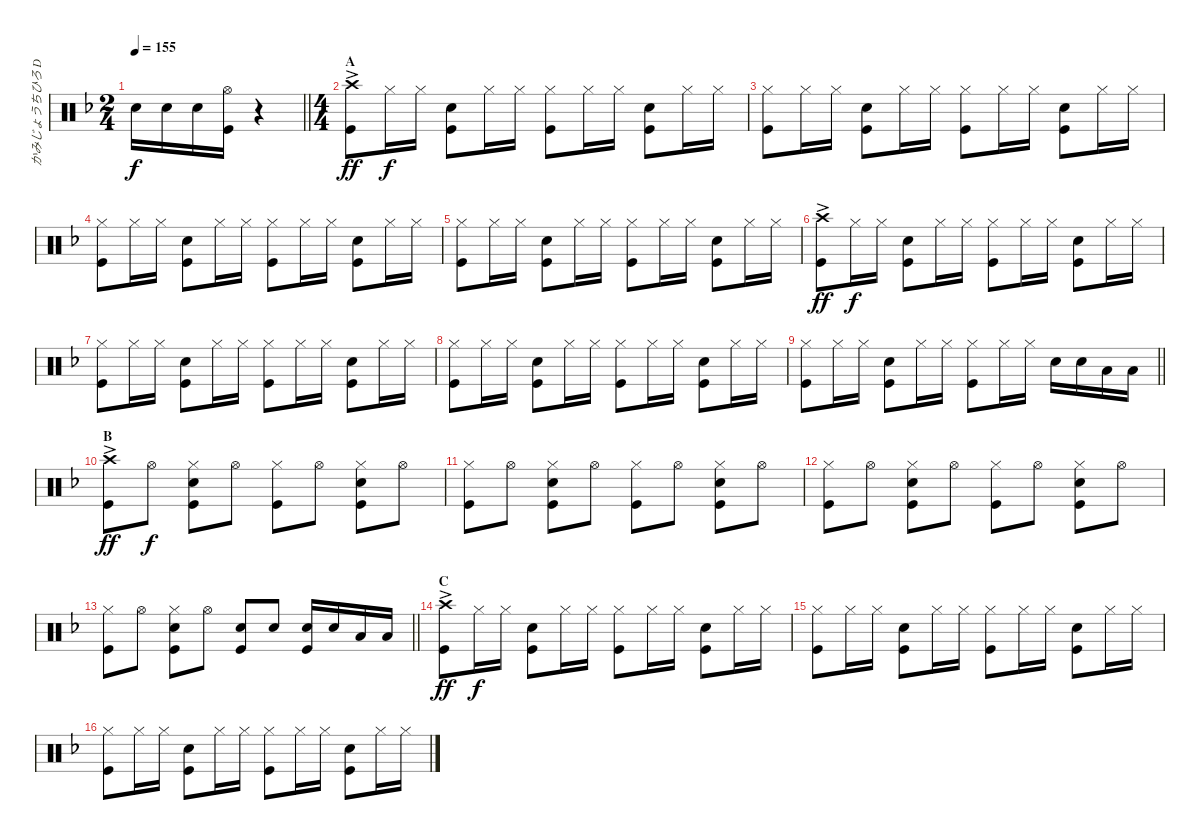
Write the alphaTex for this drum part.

\track ("かみじょうちひろ DRUMS" "かみじょうちひろ D") {instrument percussion}
\staff {score}
\articulation defaults
\ts (2 4)
\tempo 155
\clef neutral
\barLineRight lightlight
\ks f "Snare (hit) 2".16{dy f} "Snare (hit) 2".16 "Snare (hit) 2".16
("Hi-Hat (open)" "Kick (hit)").16 r.4 |
\ts (4 4)
\section ("" "A")
("Crash high (hit)"{ac} "Kick (hit)").8{dy ff} "Hi-Hat (closed)".16{dy f} "Hi-Hat (closed)".16 ("Snare (hit) 2" "Kick (hit)").8 "Hi-Hat (closed)".16 "Hi-Hat (closed)".16 ("Hi-Hat (closed)" "Kick (hit)").8 "Hi-Hat (closed)".16 "Hi-Hat (closed)".16 ("Snare (hit) 2" "Kick (hit)").8 "Hi-Hat (closed)".16 "Hi-Hat (closed)".16 |
("Hi-Hat (closed)" "Kick (hit)").8 "Hi-Hat (closed)".16 "Hi-Hat (closed)".16 ("Snare (hit) 2" "Kick (hit)").8 "Hi-Hat (closed)".16 "Hi-Hat (closed)".16 ("Hi-Hat (closed)" "Kick (hit)").8 "Hi-Hat (closed)".16 "Hi-Hat (closed)".16 ("Snare (hit) 2" "Kick (hit)").8 "Hi-Hat (closed)".16 "Hi-Hat (closed)".16 |
("Hi-Hat (closed)" "Kick (hit)").8 "Hi-Hat (closed)".16 "Hi-Hat (closed)".16 ("Snare (hit) 2" "Kick (hit)").8 "Hi-Hat (closed)".16 "Hi-Hat (closed)".16 ("Hi-Hat (closed)" "Kick (hit)").8 "Hi-Hat (closed)".16 "Hi-Hat (closed)".16 ("Snare (hit) 2" "Kick (hit)").8 "Hi-Hat (closed)".16 "Hi-Hat (closed)".16 |
("Hi-Hat (closed)" "Kick (hit)").8 "Hi-Hat (closed)".16 "Hi-Hat (closed)".16 ("Snare (hit) 2" "Kick (hit)").8 "Hi-Hat (closed)".16 "Hi-Hat (closed)".16 ("Hi-Hat (closed)" "Kick (hit)").8 "Hi-Hat (closed)".16 "Hi-Hat (closed)".16 ("Snare (hit) 2" "Kick (hit)").8 "Hi-Hat (closed)".16 "Hi-Hat (closed)".16 |
("Crash high (hit)"{ac} "Kick (hit)").8{dy ff} "Hi-Hat (closed)".16{dy f} "Hi-Hat (closed)".16 ("Snare (hit) 2" "Kick (hit)").8 "Hi-Hat (closed)".16 "Hi-Hat (closed)".16 ("Hi-Hat (closed)" "Kick (hit)").8 "Hi-Hat (closed)".16 "Hi-Hat (closed)".16 ("Snare (hit) 2" "Kick (hit)").8 "Hi-Hat (closed)".16 "Hi-Hat (closed)".16 |
("Hi-Hat (closed)" "Kick (hit)").8 "Hi-Hat (closed)".16 "Hi-Hat (closed)".16 ("Snare (hit) 2" "Kick (hit)").8 "Hi-Hat (closed)".16 "Hi-Hat (closed)".16 ("Hi-Hat (closed)" "Kick (hit)").8 "Hi-Hat (closed)".16 "Hi-Hat (closed)".16 ("Snare (hit) 2" "Kick (hit)").8 "Hi-Hat (closed)".16 "Hi-Hat (closed)".16 |
("Hi-Hat (closed)" "Kick (hit)").8 "Hi-Hat (closed)".16 "Hi-Hat (closed)".16 ("Snare (hit) 2" "Kick (hit)").8 "Hi-Hat (closed)".16 "Hi-Hat (closed)".16 ("Hi-Hat (closed)" "Kick (hit)").8 "Hi-Hat (closed)".16 "Hi-Hat (closed)".16 ("Snare (hit) 2" "Kick (hit)").8 "Hi-Hat (closed)".16 "Hi-Hat (closed)".16 |
\barLineRight lightlight
("Hi-Hat (closed)" "Kick (hit)").8 "Hi-Hat (closed)".16 "Hi-Hat (closed)".16 ("Snare (hit) 2" "Kick (hit)").8 "Hi-Hat (closed)".16 "Hi-Hat (closed)".16 ("Hi-Hat (closed)" "Kick (hit)").8 "Hi-Hat (closed)".16 "Hi-Hat (closed)".16 "Snare (hit) 2".16 "Snare (hit) 2".16 "Low Tom (hit)".16 "Low Tom (hit)".16 |
\section ("" "B")
("Crash high (hit)"{ac} "Kick (hit)").8{dy ff} "Hi-Hat (open)".8{dy f} ("Hi-Hat (closed)" "Snare (hit) 2" "Kick (hit)").8 "Hi-Hat (open)".8 ("Hi-Hat (closed)" "Kick (hit)").8 "Hi-Hat (open)".8 ("Hi-Hat (closed)" "Snare (hit) 2" "Kick (hit)").8 "Hi-Hat (open)".8 |
("Hi-Hat (closed)" "Kick (hit)").8 "Hi-Hat (open)".8 ("Hi-Hat (closed)" "Snare (hit) 2" "Kick (hit)").8 "Hi-Hat (open)".8 ("Hi-Hat (closed)" "Kick (hit)").8 "Hi-Hat (open)".8 ("Hi-Hat (closed)" "Snare (hit) 2" "Kick (hit)").8 "Hi-Hat (open)".8 |
("Hi-Hat (closed)" "Kick (hit)").8 "Hi-Hat (open)".8 ("Hi-Hat (closed)" "Snare (hit) 2" "Kick (hit)").8 "Hi-Hat (open)".8 ("Hi-Hat (closed)" "Kick (hit)").8 "Hi-Hat (open)".8 ("Hi-Hat (closed)" "Snare (hit) 2" "Kick (hit)").8 "Hi-Hat (open)".8 |
\barLineRight lightlight
("Hi-Hat (closed)" "Kick (hit)").8 "Hi-Hat (open)".8 ("Hi-Hat (closed)" "Snare (hit) 2" "Kick (hit)").8 "Hi-Hat (open)".8 ("Snare (hit) 2" "Kick (hit)").8 "Snare (hit) 2".8 ("Snare (hit) 2" "Kick (hit)").16 "Snare (hit) 2".16 "Low Tom (hit)".16 "Low Tom (hit)".16 |
\section ("" "C")
("Crash high (hit)"{ac} "Kick (hit)").8{dy ff} "Hi-Hat (closed)".16{dy f} "Hi-Hat (closed)".16 ("Snare (hit) 2" "Kick (hit)").8 "Hi-Hat (closed)".16 "Hi-Hat (closed)".16 ("Hi-Hat (closed)" "Kick (hit)").8 "Hi-Hat (closed)".16 "Hi-Hat (closed)".16 ("Snare (hit) 2" "Kick (hit)").8 "Hi-Hat (closed)".16 "Hi-Hat (closed)".16 |
("Hi-Hat (closed)" "Kick (hit)").8 "Hi-Hat (closed)".16 "Hi-Hat (closed)".16 ("Snare (hit) 2" "Kick (hit)").8 "Hi-Hat (closed)".16 "Hi-Hat (closed)".16 ("Hi-Hat (closed)" "Kick (hit)").8 "Hi-Hat (closed)".16 "Hi-Hat (closed)".16 ("Snare (hit) 2" "Kick (hit)").8 "Hi-Hat (closed)".16 "Hi-Hat (closed)".16 |
("Hi-Hat (closed)" "Kick (hit)").8 "Hi-Hat (closed)".16 "Hi-Hat (closed)".16 ("Snare (hit) 2" "Kick (hit)").8 "Hi-Hat (closed)".16 "Hi-Hat (closed)".16 ("Hi-Hat (closed)" "Kick (hit)").8 "Hi-Hat (closed)".16 "Hi-Hat (closed)".16 ("Snare (hit) 2" "Kick (hit)").8 "Hi-Hat (closed)".16 "Hi-Hat (closed)".16
